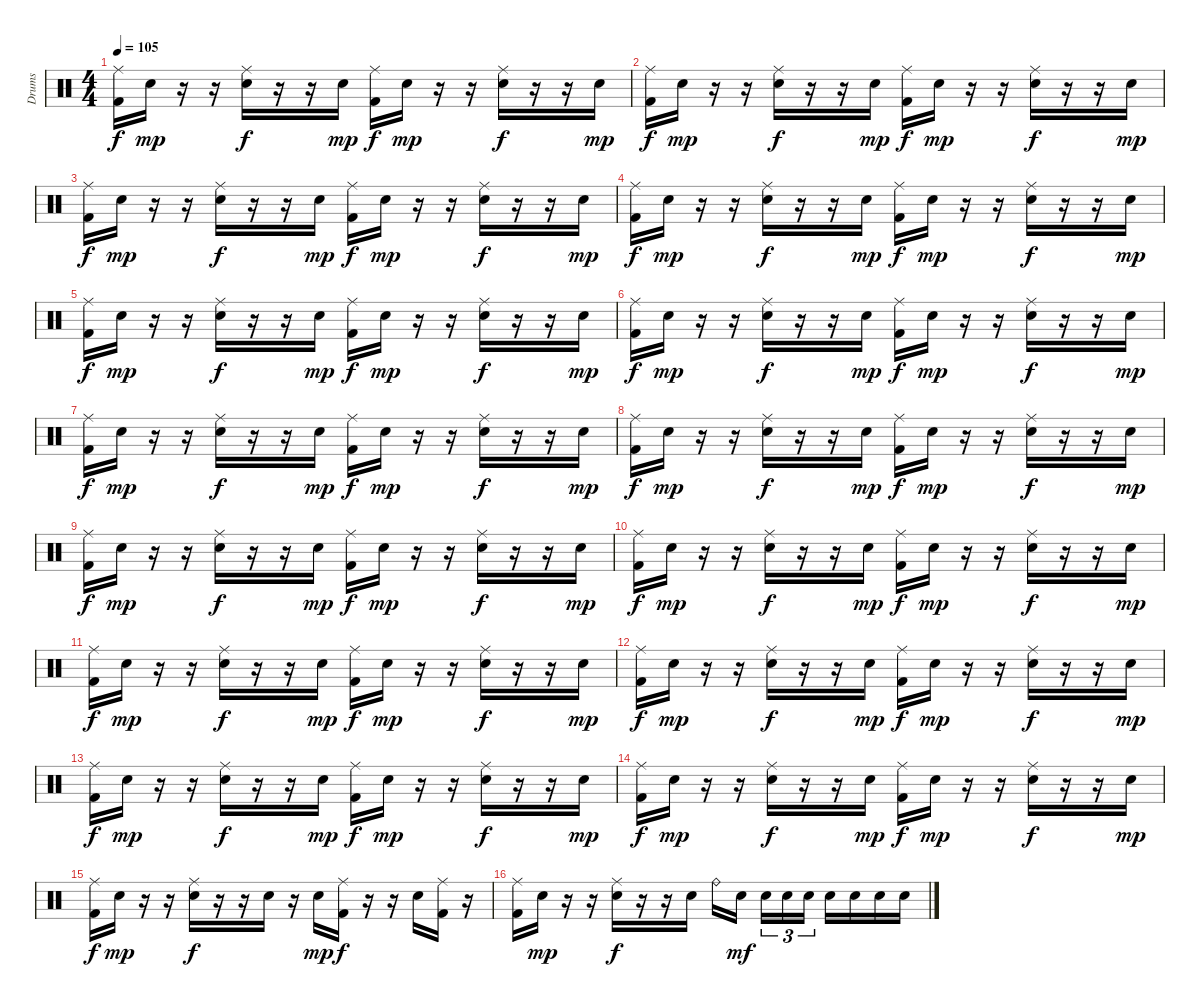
\track ("Drums" "Drums") {instrument percussion}
\staff {score}
\articulation defaults
\ts (4 4)
\tempo 105
\clef neutral
\ks c
("Ride (middle)" "Kick (hit) 2").16{dy f} "Electric Snare (hit)".16{dy mp} r.16 r.16 ("Ride (middle)" "Electric Snare (hit)").16{dy f} r.16 r.16 "Electric Snare (hit)".16{dy mp} ("Ride (middle)" "Kick (hit) 2").16{dy f} "Electric Snare (hit)".16{dy mp} r.16 r.16 ("Ride (middle)" "Electric Snare (hit)").16{dy f} r.16 r.16 "Electric Snare (hit)".16{dy mp} |
("Ride (middle)" "Kick (hit) 2").16{dy f} "Electric Snare (hit)".16{dy mp} r.16 r.16 ("Ride (middle)" "Electric Snare (hit)").16{dy f} r.16 r.16 "Electric Snare (hit)".16{dy mp} ("Ride (middle)" "Kick (hit) 2").16{dy f} "Electric Snare (hit)".16{dy mp} r.16 r.16 ("Ride (middle)" "Electric Snare (hit)").16{dy f} r.16 r.16 "Electric Snare (hit)".16{dy mp} |
("Ride (middle)" "Kick (hit) 2").16{dy f} "Electric Snare (hit)".16{dy mp} r.16 r.16 ("Ride (middle)" "Electric Snare (hit)").16{dy f} r.16 r.16 "Electric Snare (hit)".16{dy mp} ("Ride (middle)" "Kick (hit) 2").16{dy f} "Electric Snare (hit)".16{dy mp} r.16 r.16 ("Ride (middle)" "Electric Snare (hit)").16{dy f} r.16 r.16 "Electric Snare (hit)".16{dy mp} |
("Ride (middle)" "Kick (hit) 2").16{dy f} "Electric Snare (hit)".16{dy mp} r.16 r.16 ("Ride (middle)" "Electric Snare (hit)").16{dy f} r.16 r.16 "Electric Snare (hit)".16{dy mp} ("Ride (middle)" "Kick (hit) 2").16{dy f} "Electric Snare (hit)".16{dy mp} r.16 r.16 ("Ride (middle)" "Electric Snare (hit)").16{dy f} r.16 r.16 "Electric Snare (hit)".16{dy mp} |
("Ride (middle)" "Kick (hit) 2").16{dy f} "Electric Snare (hit)".16{dy mp} r.16 r.16 ("Ride (middle)" "Electric Snare (hit)").16{dy f} r.16 r.16 "Electric Snare (hit)".16{dy mp} ("Ride (middle)" "Kick (hit) 2").16{dy f} "Electric Snare (hit)".16{dy mp} r.16 r.16 ("Ride (middle)" "Electric Snare (hit)").16{dy f} r.16 r.16 "Electric Snare (hit)".16{dy mp} |
("Ride (middle)" "Kick (hit) 2").16{dy f} "Electric Snare (hit)".16{dy mp} r.16 r.16 ("Ride (middle)" "Electric Snare (hit)").16{dy f} r.16 r.16 "Electric Snare (hit)".16{dy mp} ("Ride (middle)" "Kick (hit) 2").16{dy f} "Electric Snare (hit)".16{dy mp} r.16 r.16 ("Ride (middle)" "Electric Snare (hit)").16{dy f} r.16 r.16 "Electric Snare (hit)".16{dy mp} |
("Ride (middle)" "Kick (hit) 2").16{dy f} "Electric Snare (hit)".16{dy mp} r.16 r.16 ("Ride (middle)" "Electric Snare (hit)").16{dy f} r.16 r.16 "Electric Snare (hit)".16{dy mp} ("Ride (middle)" "Kick (hit) 2").16{dy f} "Electric Snare (hit)".16{dy mp} r.16 r.16 ("Ride (middle)" "Electric Snare (hit)").16{dy f} r.16 r.16 "Electric Snare (hit)".16{dy mp} |
("Ride (middle)" "Kick (hit) 2").16{dy f} "Electric Snare (hit)".16{dy mp} r.16 r.16 ("Ride (middle)" "Electric Snare (hit)").16{dy f} r.16 r.16 "Electric Snare (hit)".16{dy mp} ("Ride (middle)" "Kick (hit) 2").16{dy f} "Electric Snare (hit)".16{dy mp} r.16 r.16 ("Ride (middle)" "Electric Snare (hit)").16{dy f} r.16 r.16 "Electric Snare (hit)".16{dy mp} |
("Ride (middle)" "Kick (hit) 2").16{dy f} "Electric Snare (hit)".16{dy mp} r.16 r.16 ("Ride (middle)" "Electric Snare (hit)").16{dy f} r.16 r.16 "Electric Snare (hit)".16{dy mp} ("Ride (middle)" "Kick (hit) 2").16{dy f} "Electric Snare (hit)".16{dy mp} r.16 r.16 ("Ride (middle)" "Electric Snare (hit)").16{dy f} r.16 r.16 "Electric Snare (hit)".16{dy mp} |
("Ride (middle)" "Kick (hit) 2").16{dy f} "Electric Snare (hit)".16{dy mp} r.16 r.16 ("Ride (middle)" "Electric Snare (hit)").16{dy f} r.16 r.16 "Electric Snare (hit)".16{dy mp} ("Ride (middle)" "Kick (hit) 2").16{dy f} "Electric Snare (hit)".16{dy mp} r.16 r.16 ("Ride (middle)" "Electric Snare (hit)").16{dy f} r.16 r.16 "Electric Snare (hit)".16{dy mp} |
("Ride (middle)" "Kick (hit) 2").16{dy f} "Electric Snare (hit)".16{dy mp} r.16 r.16 ("Ride (middle)" "Electric Snare (hit)").16{dy f} r.16 r.16 "Electric Snare (hit)".16{dy mp} ("Ride (middle)" "Kick (hit) 2").16{dy f} "Electric Snare (hit)".16{dy mp} r.16 r.16 ("Ride (middle)" "Electric Snare (hit)").16{dy f} r.16 r.16 "Electric Snare (hit)".16{dy mp} |
("Ride (middle)" "Kick (hit) 2").16{dy f} "Electric Snare (hit)".16{dy mp} r.16 r.16 ("Ride (middle)" "Electric Snare (hit)").16{dy f} r.16 r.16 "Electric Snare (hit)".16{dy mp} ("Ride (middle)" "Kick (hit) 2").16{dy f} "Electric Snare (hit)".16{dy mp} r.16 r.16 ("Ride (middle)" "Electric Snare (hit)").16{dy f} r.16 r.16 "Electric Snare (hit)".16{dy mp} |
("Ride (middle)" "Kick (hit) 2").16{dy f} "Electric Snare (hit)".16{dy mp} r.16 r.16 ("Ride (middle)" "Electric Snare (hit)").16{dy f} r.16 r.16 "Electric Snare (hit)".16{dy mp} ("Ride (middle)" "Kick (hit) 2").16{dy f} "Electric Snare (hit)".16{dy mp} r.16 r.16 ("Ride (middle)" "Electric Snare (hit)").16{dy f} r.16 r.16 "Electric Snare (hit)".16{dy mp} |
("Ride (middle)" "Kick (hit) 2").16{dy f} "Electric Snare (hit)".16{dy mp} r.16 r.16 ("Ride (middle)" "Electric Snare (hit)").16{dy f} r.16 r.16 "Electric Snare (hit)".16{dy mp} ("Ride (middle)" "Kick (hit) 2").16{dy f} "Electric Snare (hit)".16{dy mp} r.16 r.16 ("Ride (middle)" "Electric Snare (hit)").16{dy f} r.16 r.16 "Electric Snare (hit)".16{dy mp} |
("Ride (middle)" "Kick (hit) 2").16{dy f} "Electric Snare (hit)".16{dy mp} r.16 r.16 ("Ride (middle)" "Electric Snare (hit)").16{dy f} r.16 r.16 "Electric Snare (hit)".16 r.16 "Electric Snare (hit)".16{dy mp} ("Ride (middle)" "Kick (hit) 2").16{dy f} r.16 r.16 "Electric Snare (hit)".16 ("Ride (middle)" "Kick (hit) 2").16 r.16 |
("Ride (middle)" "Kick (hit) 2").16 "Electric Snare (hit)".16{dy mp} r.16 r.16 ("Ride (middle)" "Electric Snare (hit)").16{dy f} r.16 r.16 "Electric Snare (hit)".16 "Ride (bell)".16 "Electric Snare (hit)".16{dy mf beam splitsecondary} "Electric Snare (hit)".16{tu (3 2)} "Electric Snare (hit)".16{tu (3 2)} "Electric Snare (hit)".16{tu (3 2)} "Electric Snare (hit)".16 "Electric Snare (hit)".16 "Electric Snare (hit)".16 "Electric Snare (hit)".16
